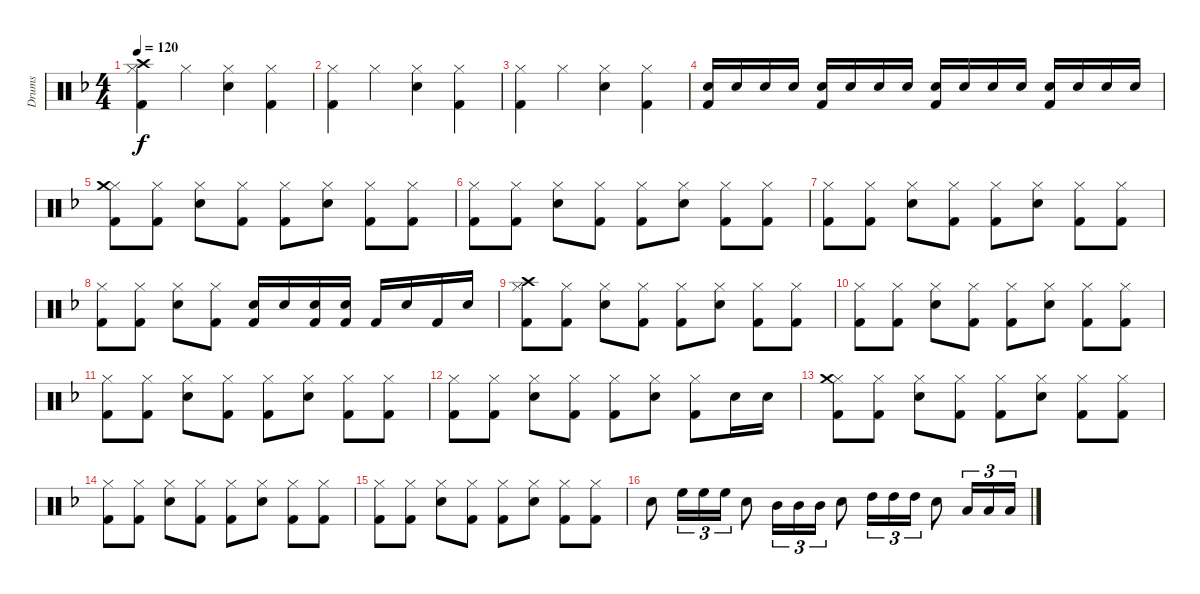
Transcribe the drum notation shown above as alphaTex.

\track ("Drums" "Drums") {instrument percussion}
\staff {score}
\articulation defaults
\ts (4 4)
\tempo 120
\clef neutral
\ks dminor
("Hi-Hat (closed)" "Crash high (hit)" "Kick (hit) 2").4{dy f} "Hi-Hat (closed)".4 ("Hi-Hat (closed)" "Electric Snare (hit)").4 ("Hi-Hat (closed)" "Kick (hit) 2").4 |
("Hi-Hat (closed)" "Kick (hit) 2").4 "Hi-Hat (closed)".4 ("Hi-Hat (closed)" "Electric Snare (hit)").4 ("Hi-Hat (closed)" "Kick (hit) 2").4 |
("Hi-Hat (closed)" "Kick (hit) 2").4 "Hi-Hat (closed)".4 ("Hi-Hat (closed)" "Electric Snare (hit)").4 ("Hi-Hat (closed)" "Kick (hit) 2").4 |
("Electric Snare (hit)" "Kick (hit) 2").16 "Electric Snare (hit)".16 "Electric Snare (hit)".16 "Electric Snare (hit)".16 ("Electric Snare (hit)" "Kick (hit) 2").16 "Electric Snare (hit)".16 "Electric Snare (hit)".16 "Electric Snare (hit)".16 ("Electric Snare (hit)" "Kick (hit) 2").16 "Electric Snare (hit)".16 "Electric Snare (hit)".16 "Electric Snare (hit)".16 ("Electric Snare (hit)" "Kick (hit) 2").16 "Electric Snare (hit)".16 "Electric Snare (hit)".16 "Electric Snare (hit)".16 |
("Hi-Hat (closed)" "Crash medium (hit)" "Kick (hit) 2").8 ("Hi-Hat (closed)" "Kick (hit) 2").8 ("Hi-Hat (closed)" "Electric Snare (hit)").8 ("Hi-Hat (closed)" "Kick (hit) 2").8 ("Hi-Hat (closed)" "Kick (hit) 2").8 ("Hi-Hat (closed)" "Electric Snare (hit)").8 ("Hi-Hat (closed)" "Kick (hit) 2").8 ("Hi-Hat (closed)" "Kick (hit) 2").8 |
("Hi-Hat (closed)" "Kick (hit) 2").8 ("Hi-Hat (closed)" "Kick (hit) 2").8 ("Hi-Hat (closed)" "Electric Snare (hit)").8 ("Hi-Hat (closed)" "Kick (hit) 2").8 ("Hi-Hat (closed)" "Kick (hit) 2").8 ("Hi-Hat (closed)" "Electric Snare (hit)").8 ("Hi-Hat (closed)" "Kick (hit) 2").8 ("Hi-Hat (closed)" "Kick (hit) 2").8 |
("Hi-Hat (closed)" "Kick (hit) 2").8 ("Hi-Hat (closed)" "Kick (hit) 2").8 ("Hi-Hat (closed)" "Electric Snare (hit)").8 ("Hi-Hat (closed)" "Kick (hit) 2").8 ("Hi-Hat (closed)" "Kick (hit) 2").8 ("Hi-Hat (closed)" "Electric Snare (hit)").8 ("Hi-Hat (closed)" "Kick (hit) 2").8 ("Hi-Hat (closed)" "Kick (hit) 2").8 |
("Hi-Hat (closed)" "Kick (hit) 2").8 ("Hi-Hat (closed)" "Kick (hit) 2").8 ("Hi-Hat (closed)" "Electric Snare (hit)").8 ("Hi-Hat (closed)" "Kick (hit) 2").8 ("Electric Snare (hit)" "Kick (hit) 2").16 "Electric Snare (hit)".16 ("Electric Snare (hit)" "Kick (hit) 2").16 ("Electric Snare (hit)" "Kick (hit) 2").16 "Kick (hit) 2".16 "Snare (hit) 2".16 "Kick (hit) 2".16 "Snare (hit) 2".16 |
("Hi-Hat (closed)" "Crash high (hit)" "Kick (hit) 2").8 ("Hi-Hat (closed)" "Kick (hit) 2").8 ("Hi-Hat (closed)" "Electric Snare (hit)").8 ("Hi-Hat (closed)" "Kick (hit) 2").8 ("Hi-Hat (closed)" "Kick (hit) 2").8 ("Hi-Hat (closed)" "Electric Snare (hit)").8 ("Hi-Hat (closed)" "Kick (hit) 2").8 ("Hi-Hat (closed)" "Kick (hit) 2").8 |
("Hi-Hat (closed)" "Kick (hit) 2").8 ("Hi-Hat (closed)" "Kick (hit) 2").8 ("Hi-Hat (closed)" "Electric Snare (hit)").8 ("Hi-Hat (closed)" "Kick (hit) 2").8 ("Hi-Hat (closed)" "Kick (hit) 2").8 ("Hi-Hat (closed)" "Electric Snare (hit)").8 ("Hi-Hat (closed)" "Kick (hit) 2").8 ("Hi-Hat (closed)" "Kick (hit) 2").8 |
("Hi-Hat (closed)" "Kick (hit) 2").8 ("Hi-Hat (closed)" "Kick (hit) 2").8 ("Hi-Hat (closed)" "Electric Snare (hit)").8 ("Hi-Hat (closed)" "Kick (hit) 2").8 ("Hi-Hat (closed)" "Kick (hit) 2").8 ("Hi-Hat (closed)" "Electric Snare (hit)").8 ("Hi-Hat (closed)" "Kick (hit) 2").8 ("Hi-Hat (closed)" "Kick (hit) 2").8 |
("Hi-Hat (closed)" "Kick (hit) 2").8 ("Hi-Hat (closed)" "Kick (hit) 2").8 ("Hi-Hat (closed)" "Electric Snare (hit)").8 ("Hi-Hat (closed)" "Kick (hit) 2").8 ("Hi-Hat (closed)" "Kick (hit) 2").8 ("Hi-Hat (closed)" "Electric Snare (hit)").8 ("Hi-Hat (closed)" "Kick (hit) 2").8 "Snare (hit) 2".16 "Snare (hit) 2".16 |
("Hi-Hat (closed)" "Crash medium (hit)" "Kick (hit) 2").8 ("Hi-Hat (closed)" "Kick (hit) 2").8 ("Hi-Hat (closed)" "Electric Snare (hit)").8 ("Hi-Hat (closed)" "Kick (hit) 2").8 ("Hi-Hat (closed)" "Kick (hit) 2").8 ("Hi-Hat (closed)" "Electric Snare (hit)").8 ("Hi-Hat (closed)" "Kick (hit) 2").8 ("Hi-Hat (closed)" "Kick (hit) 2").8 |
("Hi-Hat (closed)" "Kick (hit) 2").8 ("Hi-Hat (closed)" "Kick (hit) 2").8 ("Hi-Hat (closed)" "Electric Snare (hit)").8 ("Hi-Hat (closed)" "Kick (hit) 2").8 ("Hi-Hat (closed)" "Kick (hit) 2").8 ("Hi-Hat (closed)" "Electric Snare (hit)").8 ("Hi-Hat (closed)" "Kick (hit) 2").8 ("Hi-Hat (closed)" "Kick (hit) 2").8 |
("Hi-Hat (closed)" "Kick (hit) 2").8 ("Hi-Hat (closed)" "Kick (hit) 2").8 ("Hi-Hat (closed)" "Electric Snare (hit)").8 ("Hi-Hat (closed)" "Kick (hit) 2").8 ("Hi-Hat (closed)" "Kick (hit) 2").8 ("Hi-Hat (closed)" "Electric Snare (hit)").8 ("Hi-Hat (closed)" "Kick (hit) 2").8 ("Hi-Hat (closed)" "Kick (hit) 2").8 |
"Snare (hit) 2".8 "High Floor Tom (hit)".16{tu (3 2)} "High Floor Tom (hit)".16{tu (3 2)} "High Floor Tom (hit)".16{tu (3 2)} "Snare (hit) 2".8 "Mid Tom (hit)".16{tu (3 2)} "Mid Tom (hit)".16{tu (3 2)} "Mid Tom (hit)".16{tu (3 2)} "Snare (hit) 2".8 "High Tom (hit)".16{tu (3 2)} "High Tom (hit)".16{tu (3 2)} "High Tom (hit)".16{tu (3 2)} "Snare (hit) 2".8 "Low Tom (hit)".16{tu (3 2)} "Low Tom (hit)".16{tu (3 2)} "Low Tom (hit)".16{tu (3 2)}
